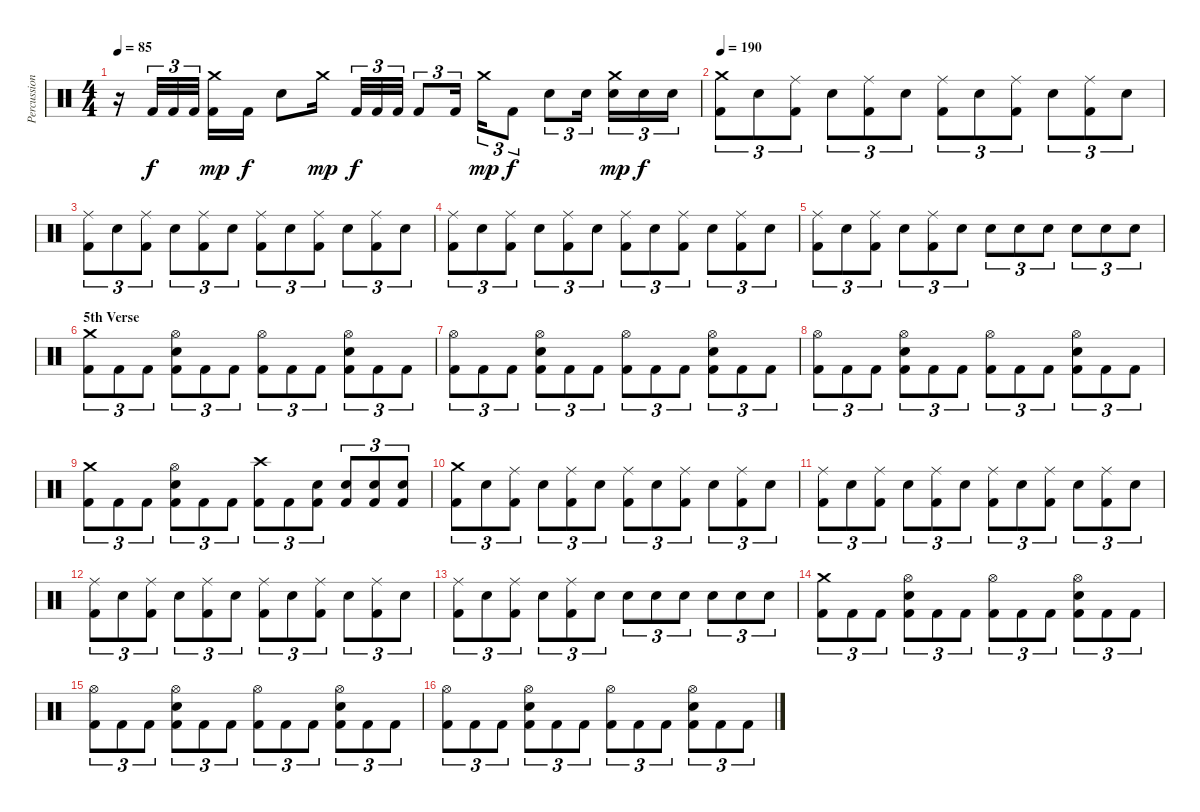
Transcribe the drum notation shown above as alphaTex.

\track ("Percussion" "Percussion") {instrument percussion}
\staff {score}
\articulation defaults
\ts (4 4)
\tempo 85
\clef neutral
\ks c
r.16{dy mp} "Kick (hit) 2".32{tu (3 2) dy f} "Kick (hit) 2".32{tu (3 2)} "Kick (hit) 2".32{tu (3 2)} ("Kick (hit) 2" "Crash medium (hit)").16{dy mp} "Kick (hit) 2".16{dy f} "Electric Snare (hit)".8 "Crash medium (hit)".16{dy mp} "Kick (hit) 2".32{tu (3 2) dy f} "Kick (hit) 2".32{tu (3 2)} "Kick (hit) 2".32{tu (3 2)} "Kick (hit) 2".8{tu (3 2)} "Kick (hit) 2".16{tu (3 2)} "Crash medium (hit)".16{tu (3 2) dy mp} "Kick (hit) 2".8{tu (3 2) dy f} "Electric Snare (hit)".8{tu (3 2)} "Electric Snare (hit)".16{tu (3 2)} ("Electric Snare (hit)" "Crash medium (hit)").16{tu (3 2) dy mp} "Electric Snare (hit)".16{tu (3 2) dy f} "Electric Snare (hit)".16{tu (3 2)} |
\tempo 190
("Kick (hit) 2" "Crash medium (hit)").8{tu (3 2)} "Electric Snare (hit)".8{tu (3 2)} ("Kick (hit) 2" "Ride (middle)").8{tu (3 2)} "Electric Snare (hit)".8{tu (3 2)} ("Kick (hit) 2" "Ride (middle)").8{tu (3 2)} "Electric Snare (hit)".8{tu (3 2)} ("Kick (hit) 2" "Ride (middle)").8{tu (3 2)} "Electric Snare (hit)".8{tu (3 2)} ("Kick (hit) 2" "Ride (middle)").8{tu (3 2)} "Electric Snare (hit)".8{tu (3 2)} ("Kick (hit) 2" "Ride (middle)").8{tu (3 2)} "Electric Snare (hit)".8{tu (3 2)} |
("Kick (hit) 2" "Ride (middle)").8{tu (3 2)} "Electric Snare (hit)".8{tu (3 2)} ("Kick (hit) 2" "Ride (middle)").8{tu (3 2)} "Electric Snare (hit)".8{tu (3 2)} ("Kick (hit) 2" "Ride (middle)").8{tu (3 2)} "Electric Snare (hit)".8{tu (3 2)} ("Kick (hit) 2" "Ride (middle)").8{tu (3 2)} "Electric Snare (hit)".8{tu (3 2)} ("Kick (hit) 2" "Ride (middle)").8{tu (3 2)} "Electric Snare (hit)".8{tu (3 2)} ("Kick (hit) 2" "Ride (middle)").8{tu (3 2)} "Electric Snare (hit)".8{tu (3 2)} |
("Kick (hit) 2" "Ride (middle)").8{tu (3 2)} "Electric Snare (hit)".8{tu (3 2)} ("Kick (hit) 2" "Ride (middle)").8{tu (3 2)} "Electric Snare (hit)".8{tu (3 2)} ("Kick (hit) 2" "Ride (middle)").8{tu (3 2)} "Electric Snare (hit)".8{tu (3 2)} ("Kick (hit) 2" "Ride (middle)").8{tu (3 2)} "Electric Snare (hit)".8{tu (3 2)} ("Kick (hit) 2" "Ride (middle)").8{tu (3 2)} "Electric Snare (hit)".8{tu (3 2)} ("Kick (hit) 2" "Ride (middle)").8{tu (3 2)} "Electric Snare (hit)".8{tu (3 2)} |
("Kick (hit) 2" "Ride (middle)").8{tu (3 2)} "Electric Snare (hit)".8{tu (3 2)} ("Kick (hit) 2" "Ride (middle)").8{tu (3 2)} "Electric Snare (hit)".8{tu (3 2)} ("Kick (hit) 2" "Ride (middle)").8{tu (3 2)} "Electric Snare (hit)".8{tu (3 2)} "Electric Snare (hit)".8{tu (3 2)} "Electric Snare (hit)".8{tu (3 2)} "Electric Snare (hit)".8{tu (3 2)} "Electric Snare (hit)".8{tu (3 2)} "Electric Snare (hit)".8{tu (3 2)} "Electric Snare (hit)".8{tu (3 2)} |
\section ("" "5th Verse")
("Kick (hit) 2" "Crash medium (hit)").8{tu (3 2)} "Kick (hit) 2".8{tu (3 2)} "Kick (hit) 2".8{tu (3 2)} ("Kick (hit) 2" "Electric Snare (hit)" "Hi-Hat (open)").8{tu (3 2)} "Kick (hit) 2".8{tu (3 2)} "Kick (hit) 2".8{tu (3 2)} ("Kick (hit) 2" "Hi-Hat (open)").8{tu (3 2)} "Kick (hit) 2".8{tu (3 2)} "Kick (hit) 2".8{tu (3 2)} ("Kick (hit) 2" "Electric Snare (hit)" "Hi-Hat (open)").8{tu (3 2)} "Kick (hit) 2".8{tu (3 2)} "Kick (hit) 2".8{tu (3 2)} |
("Kick (hit) 2" "Hi-Hat (open)").8{tu (3 2)} "Kick (hit) 2".8{tu (3 2)} "Kick (hit) 2".8{tu (3 2)} ("Kick (hit) 2" "Electric Snare (hit)" "Hi-Hat (open)").8{tu (3 2)} "Kick (hit) 2".8{tu (3 2)} "Kick (hit) 2".8{tu (3 2)} ("Kick (hit) 2" "Hi-Hat (open)").8{tu (3 2)} "Kick (hit) 2".8{tu (3 2)} "Kick (hit) 2".8{tu (3 2)} ("Kick (hit) 2" "Electric Snare (hit)" "Hi-Hat (open)").8{tu (3 2)} "Kick (hit) 2".8{tu (3 2)} "Kick (hit) 2".8{tu (3 2)} |
("Kick (hit) 2" "Hi-Hat (open)").8{tu (3 2)} "Kick (hit) 2".8{tu (3 2)} "Kick (hit) 2".8{tu (3 2)} ("Kick (hit) 2" "Electric Snare (hit)" "Hi-Hat (open)").8{tu (3 2)} "Kick (hit) 2".8{tu (3 2)} "Kick (hit) 2".8{tu (3 2)} ("Kick (hit) 2" "Hi-Hat (open)").8{tu (3 2)} "Kick (hit) 2".8{tu (3 2)} "Kick (hit) 2".8{tu (3 2)} ("Kick (hit) 2" "Electric Snare (hit)" "Hi-Hat (open)").8{tu (3 2)} "Kick (hit) 2".8{tu (3 2)} "Kick (hit) 2".8{tu (3 2)} |
("Kick (hit) 2" "Crash medium (hit)").8{tu (3 2)} "Kick (hit) 2".8{tu (3 2)} "Kick (hit) 2".8{tu (3 2)} ("Kick (hit) 2" "Electric Snare (hit)" "Hi-Hat (open)").8{tu (3 2)} "Kick (hit) 2".8{tu (3 2)} "Kick (hit) 2".8{tu (3 2)} ("Kick (hit) 2" "Crash high (hit)").8{tu (3 2)} "Kick (hit) 2".8{tu (3 2)} ("Kick (hit) 2" "Electric Snare (hit)").8{tu (3 2)} ("Kick (hit) 2" "Electric Snare (hit)").8{tu (3 2)} ("Kick (hit) 2" "Electric Snare (hit)").8{tu (3 2)} ("Kick (hit) 2" "Electric Snare (hit)").8{tu (3 2)} |
("Kick (hit) 2" "Crash medium (hit)").8{tu (3 2)} "Electric Snare (hit)".8{tu (3 2)} ("Kick (hit) 2" "Ride (middle)").8{tu (3 2)} "Electric Snare (hit)".8{tu (3 2)} ("Kick (hit) 2" "Ride (middle)").8{tu (3 2)} "Electric Snare (hit)".8{tu (3 2)} ("Kick (hit) 2" "Ride (middle)").8{tu (3 2)} "Electric Snare (hit)".8{tu (3 2)} ("Kick (hit) 2" "Ride (middle)").8{tu (3 2)} "Electric Snare (hit)".8{tu (3 2)} ("Kick (hit) 2" "Ride (middle)").8{tu (3 2)} "Electric Snare (hit)".8{tu (3 2)} |
("Kick (hit) 2" "Ride (middle)").8{tu (3 2)} "Electric Snare (hit)".8{tu (3 2)} ("Kick (hit) 2" "Ride (middle)").8{tu (3 2)} "Electric Snare (hit)".8{tu (3 2)} ("Kick (hit) 2" "Ride (middle)").8{tu (3 2)} "Electric Snare (hit)".8{tu (3 2)} ("Kick (hit) 2" "Ride (middle)").8{tu (3 2)} "Electric Snare (hit)".8{tu (3 2)} ("Kick (hit) 2" "Ride (middle)").8{tu (3 2)} "Electric Snare (hit)".8{tu (3 2)} ("Kick (hit) 2" "Ride (middle)").8{tu (3 2)} "Electric Snare (hit)".8{tu (3 2)} |
("Kick (hit) 2" "Ride (middle)").8{tu (3 2)} "Electric Snare (hit)".8{tu (3 2)} ("Kick (hit) 2" "Ride (middle)").8{tu (3 2)} "Electric Snare (hit)".8{tu (3 2)} ("Kick (hit) 2" "Ride (middle)").8{tu (3 2)} "Electric Snare (hit)".8{tu (3 2)} ("Kick (hit) 2" "Ride (middle)").8{tu (3 2)} "Electric Snare (hit)".8{tu (3 2)} ("Kick (hit) 2" "Ride (middle)").8{tu (3 2)} "Electric Snare (hit)".8{tu (3 2)} ("Kick (hit) 2" "Ride (middle)").8{tu (3 2)} "Electric Snare (hit)".8{tu (3 2)} |
("Kick (hit) 2" "Ride (middle)").8{tu (3 2)} "Electric Snare (hit)".8{tu (3 2)} ("Kick (hit) 2" "Ride (middle)").8{tu (3 2)} "Electric Snare (hit)".8{tu (3 2)} ("Kick (hit) 2" "Ride (middle)").8{tu (3 2)} "Electric Snare (hit)".8{tu (3 2)} "Electric Snare (hit)".8{tu (3 2)} "Electric Snare (hit)".8{tu (3 2)} "Electric Snare (hit)".8{tu (3 2)} "Electric Snare (hit)".8{tu (3 2)} "Electric Snare (hit)".8{tu (3 2)} "Electric Snare (hit)".8{tu (3 2)} |
("Kick (hit) 2" "Crash medium (hit)").8{tu (3 2)} "Kick (hit) 2".8{tu (3 2)} "Kick (hit) 2".8{tu (3 2)} ("Kick (hit) 2" "Electric Snare (hit)" "Hi-Hat (open)").8{tu (3 2)} "Kick (hit) 2".8{tu (3 2)} "Kick (hit) 2".8{tu (3 2)} ("Kick (hit) 2" "Hi-Hat (open)").8{tu (3 2)} "Kick (hit) 2".8{tu (3 2)} "Kick (hit) 2".8{tu (3 2)} ("Kick (hit) 2" "Electric Snare (hit)" "Hi-Hat (open)").8{tu (3 2)} "Kick (hit) 2".8{tu (3 2)} "Kick (hit) 2".8{tu (3 2)} |
("Kick (hit) 2" "Hi-Hat (open)").8{tu (3 2)} "Kick (hit) 2".8{tu (3 2)} "Kick (hit) 2".8{tu (3 2)} ("Kick (hit) 2" "Electric Snare (hit)" "Hi-Hat (open)").8{tu (3 2)} "Kick (hit) 2".8{tu (3 2)} "Kick (hit) 2".8{tu (3 2)} ("Kick (hit) 2" "Hi-Hat (open)").8{tu (3 2)} "Kick (hit) 2".8{tu (3 2)} "Kick (hit) 2".8{tu (3 2)} ("Kick (hit) 2" "Electric Snare (hit)" "Hi-Hat (open)").8{tu (3 2)} "Kick (hit) 2".8{tu (3 2)} "Kick (hit) 2".8{tu (3 2)} |
("Kick (hit) 2" "Hi-Hat (open)").8{tu (3 2)} "Kick (hit) 2".8{tu (3 2)} "Kick (hit) 2".8{tu (3 2)} ("Kick (hit) 2" "Electric Snare (hit)" "Hi-Hat (open)").8{tu (3 2)} "Kick (hit) 2".8{tu (3 2)} "Kick (hit) 2".8{tu (3 2)} ("Kick (hit) 2" "Hi-Hat (open)").8{tu (3 2)} "Kick (hit) 2".8{tu (3 2)} "Kick (hit) 2".8{tu (3 2)} ("Kick (hit) 2" "Electric Snare (hit)" "Hi-Hat (open)").8{tu (3 2)} "Kick (hit) 2".8{tu (3 2)} "Kick (hit) 2".8{tu (3 2)}
